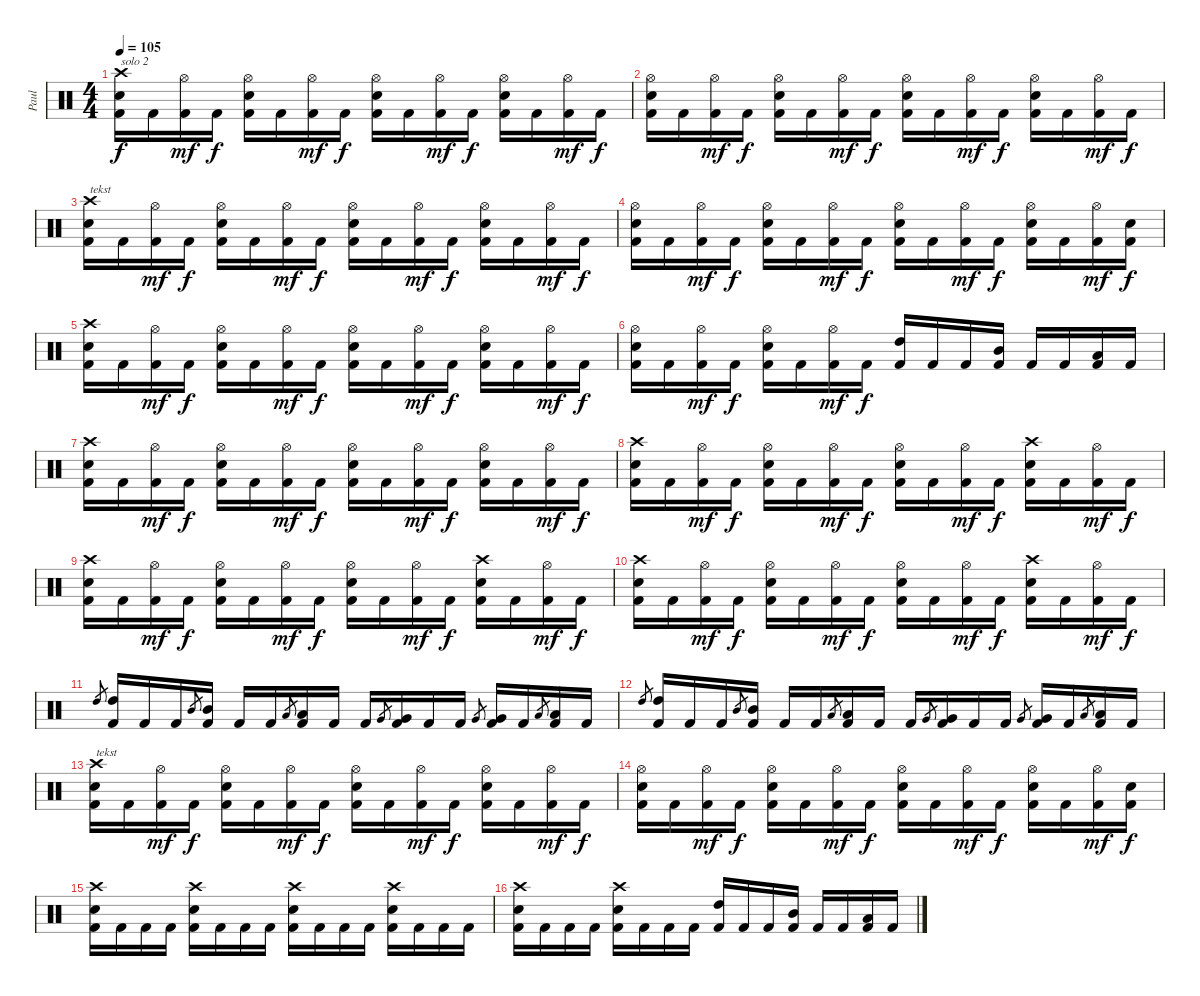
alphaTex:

\track ("Paul" "Paul") {instrument percussion}
\staff {score}
\articulation defaults
\ts (4 4)
\tempo 105
\clef neutral
\ks c
("Crash high (hit)" "Electric Snare (hit)" "Kick (hit) 2").16{txt "solo 2" dy f} "Kick (hit) 2".16 ("Hi-Hat (open)" "Kick (hit) 2").16{dy mf} "Kick (hit) 2".16{dy f} ("Hi-Hat (open)" "Electric Snare (hit)" "Kick (hit) 2").16 "Kick (hit) 2".16 ("Hi-Hat (open)" "Kick (hit) 2").16{dy mf} "Kick (hit) 2".16{dy f} ("Hi-Hat (open)" "Electric Snare (hit)" "Kick (hit) 2").16 "Kick (hit) 2".16 ("Hi-Hat (open)" "Kick (hit) 2").16{dy mf} "Kick (hit) 2".16{dy f} ("Hi-Hat (open)" "Electric Snare (hit)" "Kick (hit) 2").16 "Kick (hit) 2".16 ("Hi-Hat (open)" "Kick (hit) 2").16{dy mf} "Kick (hit) 2".16{dy f} |
("Hi-Hat (open)" "Electric Snare (hit)" "Kick (hit) 2").16 "Kick (hit) 2".16 ("Hi-Hat (open)" "Kick (hit) 2").16{dy mf} "Kick (hit) 2".16{dy f} ("Hi-Hat (open)" "Electric Snare (hit)" "Kick (hit) 2").16 "Kick (hit) 2".16 ("Hi-Hat (open)" "Kick (hit) 2").16{dy mf} "Kick (hit) 2".16{dy f} ("Hi-Hat (open)" "Electric Snare (hit)" "Kick (hit) 2").16 "Kick (hit) 2".16 ("Hi-Hat (open)" "Kick (hit) 2").16{dy mf} "Kick (hit) 2".16{dy f} ("Hi-Hat (open)" "Electric Snare (hit)" "Kick (hit) 2").16 "Kick (hit) 2".16 ("Hi-Hat (open)" "Kick (hit) 2").16{dy mf} "Kick (hit) 2".16{dy f} |
("Crash high (hit)" "Electric Snare (hit)" "Kick (hit) 2").16{txt "tekst"} "Kick (hit) 2".16 ("Hi-Hat (open)" "Kick (hit) 2").16{dy mf} "Kick (hit) 2".16{dy f} ("Hi-Hat (open)" "Electric Snare (hit)" "Kick (hit) 2").16 "Kick (hit) 2".16 ("Hi-Hat (open)" "Kick (hit) 2").16{dy mf} "Kick (hit) 2".16{dy f} ("Hi-Hat (open)" "Electric Snare (hit)" "Kick (hit) 2").16 "Kick (hit) 2".16 ("Hi-Hat (open)" "Kick (hit) 2").16{dy mf} "Kick (hit) 2".16{dy f} ("Hi-Hat (open)" "Electric Snare (hit)" "Kick (hit) 2").16 "Kick (hit) 2".16 ("Hi-Hat (open)" "Kick (hit) 2").16{dy mf} "Kick (hit) 2".16{dy f} |
("Hi-Hat (open)" "Electric Snare (hit)" "Kick (hit) 2").16 "Kick (hit) 2".16 ("Hi-Hat (open)" "Kick (hit) 2").16{dy mf} "Kick (hit) 2".16{dy f} ("Hi-Hat (open)" "Electric Snare (hit)" "Kick (hit) 2").16 "Kick (hit) 2".16 ("Hi-Hat (open)" "Kick (hit) 2").16{dy mf} "Kick (hit) 2".16{dy f} ("Hi-Hat (open)" "Electric Snare (hit)" "Kick (hit) 2").16 "Kick (hit) 2".16 ("Hi-Hat (open)" "Kick (hit) 2").16{dy mf} "Kick (hit) 2".16{dy f} ("Hi-Hat (open)" "Electric Snare (hit)" "Kick (hit) 2").16 "Kick (hit) 2".16 ("Hi-Hat (open)" "Kick (hit) 2").16{dy mf} ("Electric Snare (hit)" "Kick (hit) 2").16{dy f} |
("Crash high (hit)" "Electric Snare (hit)" "Kick (hit) 2").16 "Kick (hit) 2".16 ("Hi-Hat (open)" "Kick (hit) 2").16{dy mf} "Kick (hit) 2".16{dy f} ("Hi-Hat (open)" "Electric Snare (hit)" "Kick (hit) 2").16 "Kick (hit) 2".16 ("Hi-Hat (open)" "Kick (hit) 2").16{dy mf} "Kick (hit) 2".16{dy f} ("Hi-Hat (open)" "Electric Snare (hit)" "Kick (hit) 2").16 "Kick (hit) 2".16 ("Hi-Hat (open)" "Kick (hit) 2").16{dy mf} "Kick (hit) 2".16{dy f} ("Hi-Hat (open)" "Electric Snare (hit)" "Kick (hit) 2").16 "Kick (hit) 2".16 ("Hi-Hat (open)" "Kick (hit) 2").16{dy mf} "Kick (hit) 2".16{dy f} |
("Hi-Hat (open)" "Electric Snare (hit)" "Kick (hit) 2").16 "Kick (hit) 2".16 ("Hi-Hat (open)" "Kick (hit) 2").16{dy mf} "Kick (hit) 2".16{dy f} ("Hi-Hat (open)" "Electric Snare (hit)" "Kick (hit) 2").16 "Kick (hit) 2".16 ("Hi-Hat (open)" "Kick (hit) 2").16{dy mf} "Kick (hit) 2".16{dy f} ("High Tom (hit)" "Kick (hit) 2").16 "Kick (hit) 2".16 "Kick (hit) 2".16 ("Mid Tom (hit)" "Kick (hit) 2").16 "Kick (hit) 2".16 "Kick (hit) 2".16 ("Low Tom (hit)" "Kick (hit) 2").16 "Kick (hit) 2".16 |
("Crash high (hit)" "Electric Snare (hit)" "Kick (hit) 2").16 "Kick (hit) 2".16 ("Hi-Hat (open)" "Kick (hit) 2").16{dy mf} "Kick (hit) 2".16{dy f} ("Hi-Hat (open)" "Electric Snare (hit)" "Kick (hit) 2").16 "Kick (hit) 2".16 ("Hi-Hat (open)" "Kick (hit) 2").16{dy mf} "Kick (hit) 2".16{dy f} ("Hi-Hat (open)" "Electric Snare (hit)" "Kick (hit) 2").16 "Kick (hit) 2".16 ("Hi-Hat (open)" "Kick (hit) 2").16{dy mf} "Kick (hit) 2".16{dy f} ("Hi-Hat (open)" "Electric Snare (hit)" "Kick (hit) 2").16 "Kick (hit) 2".16 ("Hi-Hat (open)" "Kick (hit) 2").16{dy mf} "Kick (hit) 2".16{dy f} |
("Crash high (hit)" "Electric Snare (hit)" "Kick (hit) 2").16 "Kick (hit) 2".16 ("Hi-Hat (open)" "Kick (hit) 2").16{dy mf} "Kick (hit) 2".16{dy f} ("Hi-Hat (open)" "Electric Snare (hit)" "Kick (hit) 2").16 "Kick (hit) 2".16 ("Hi-Hat (open)" "Kick (hit) 2").16{dy mf} "Kick (hit) 2".16{dy f} ("Hi-Hat (open)" "Electric Snare (hit)" "Kick (hit) 2").16 "Kick (hit) 2".16 ("Hi-Hat (open)" "Kick (hit) 2").16{dy mf} "Kick (hit) 2".16{dy f} ("Crash high (hit)" "Electric Snare (hit)" "Kick (hit) 2").16 "Kick (hit) 2".16 ("Hi-Hat (open)" "Kick (hit) 2").16{dy mf} "Kick (hit) 2".16{dy f} |
("Crash high (hit)" "Electric Snare (hit)" "Kick (hit) 2").16 "Kick (hit) 2".16 ("Hi-Hat (open)" "Kick (hit) 2").16{dy mf} "Kick (hit) 2".16{dy f} ("Hi-Hat (open)" "Electric Snare (hit)" "Kick (hit) 2").16 "Kick (hit) 2".16 ("Hi-Hat (open)" "Kick (hit) 2").16{dy mf} "Kick (hit) 2".16{dy f} ("Hi-Hat (open)" "Electric Snare (hit)" "Kick (hit) 2").16 "Kick (hit) 2".16 ("Hi-Hat (open)" "Kick (hit) 2").16{dy mf} "Kick (hit) 2".16{dy f} ("Crash high (hit)" "Electric Snare (hit)" "Kick (hit) 2").16 "Kick (hit) 2".16 ("Hi-Hat (open)" "Kick (hit) 2").16{dy mf} "Kick (hit) 2".16{dy f} |
("Crash high (hit)" "Electric Snare (hit)" "Kick (hit) 2").16 "Kick (hit) 2".16 ("Hi-Hat (open)" "Kick (hit) 2").16{dy mf} "Kick (hit) 2".16{dy f} ("Hi-Hat (open)" "Electric Snare (hit)" "Kick (hit) 2").16 "Kick (hit) 2".16 ("Hi-Hat (open)" "Kick (hit) 2").16{dy mf} "Kick (hit) 2".16{dy f} ("Hi-Hat (open)" "Electric Snare (hit)" "Kick (hit) 2").16 "Kick (hit) 2".16 ("Hi-Hat (open)" "Kick (hit) 2").16{dy mf} "Kick (hit) 2".16{dy f} ("Crash high (hit)" "Electric Snare (hit)" "Kick (hit) 2").16 "Kick (hit) 2".16 ("Hi-Hat (open)" "Kick (hit) 2").16{dy mf} "Kick (hit) 2".16{dy f} |
"High Tom (hit)".8{gr} ("High Tom (hit)" "Kick (hit) 2").16 "Kick (hit) 2".16 "Kick (hit) 2".16 "Mid Tom (hit)".8{gr} ("Mid Tom (hit)" "Kick (hit) 2").16 "Kick (hit) 2".16 "Kick (hit) 2".16 "Low Tom (hit)".8{gr} ("Low Tom (hit)" "Kick (hit) 2").16 "Kick (hit) 2".16 "Kick (hit) 2".16 "Very Low Tom (hit)".8{gr} ("Very Low Tom (hit)" "Kick (hit) 2").16 "Kick (hit) 2".16 "Kick (hit) 2".16 "Very Low Tom (hit)".8{gr} ("Very Low Tom (hit)" "Kick (hit) 2").16 "Kick (hit) 2".16 "Low Floor Tom (hit)".8{gr} ("Low Floor Tom (hit)" "Kick (hit) 2").16 "Kick (hit) 2".16 |
"High Tom (hit)".8{gr} ("High Tom (hit)" "Kick (hit) 2").16 "Kick (hit) 2".16 "Kick (hit) 2".16 "Mid Tom (hit)".8{gr} ("Mid Tom (hit)" "Kick (hit) 2").16 "Kick (hit) 2".16 "Kick (hit) 2".16 "Low Tom (hit)".8{gr} ("Low Tom (hit)" "Kick (hit) 2").16 "Kick (hit) 2".16 "Kick (hit) 2".16 "Very Low Tom (hit)".8{gr} ("Very Low Tom (hit)" "Kick (hit) 2").16 "Kick (hit) 2".16 "Kick (hit) 2".16 "Very Low Tom (hit)".8{gr} ("Very Low Tom (hit)" "Kick (hit) 2").16 "Kick (hit) 2".16 "Low Floor Tom (hit)".8{gr} ("Low Floor Tom (hit)" "Kick (hit) 2").16 "Kick (hit) 2".16 |
("Crash high (hit)" "Electric Snare (hit)" "Kick (hit) 2").16{txt "tekst"} "Kick (hit) 2".16 ("Hi-Hat (open)" "Kick (hit) 2").16{dy mf} "Kick (hit) 2".16{dy f} ("Hi-Hat (open)" "Electric Snare (hit)" "Kick (hit) 2").16 "Kick (hit) 2".16 ("Hi-Hat (open)" "Kick (hit) 2").16{dy mf} "Kick (hit) 2".16{dy f} ("Hi-Hat (open)" "Electric Snare (hit)" "Kick (hit) 2").16 "Kick (hit) 2".16 ("Hi-Hat (open)" "Kick (hit) 2").16{dy mf} "Kick (hit) 2".16{dy f} ("Hi-Hat (open)" "Electric Snare (hit)" "Kick (hit) 2").16 "Kick (hit) 2".16 ("Hi-Hat (open)" "Kick (hit) 2").16{dy mf} "Kick (hit) 2".16{dy f} |
("Hi-Hat (open)" "Electric Snare (hit)" "Kick (hit) 2").16 "Kick (hit) 2".16 ("Hi-Hat (open)" "Kick (hit) 2").16{dy mf} "Kick (hit) 2".16{dy f} ("Hi-Hat (open)" "Electric Snare (hit)" "Kick (hit) 2").16 "Kick (hit) 2".16 ("Hi-Hat (open)" "Kick (hit) 2").16{dy mf} "Kick (hit) 2".16{dy f} ("Hi-Hat (open)" "Electric Snare (hit)" "Kick (hit) 2").16 "Kick (hit) 2".16 ("Hi-Hat (open)" "Kick (hit) 2").16{dy mf} "Kick (hit) 2".16{dy f} ("Hi-Hat (open)" "Electric Snare (hit)" "Kick (hit) 2").16 "Kick (hit) 2".16 ("Hi-Hat (open)" "Kick (hit) 2").16{dy mf} ("Electric Snare (hit)" "Kick (hit) 2").16{dy f} |
("Crash high (hit)" "Electric Snare (hit)" "Kick (hit) 2").16 "Kick (hit) 2".16 "Kick (hit) 2".16 "Kick (hit) 2".16 ("Crash high (hit)" "Electric Snare (hit)" "Kick (hit) 2").16 "Kick (hit) 2".16 "Kick (hit) 2".16 "Kick (hit) 2".16 ("Crash high (hit)" "Electric Snare (hit)" "Kick (hit) 2").16 "Kick (hit) 2".16 "Kick (hit) 2".16 "Kick (hit) 2".16 ("Crash high (hit)" "Electric Snare (hit)" "Kick (hit) 2").16 "Kick (hit) 2".16 "Kick (hit) 2".16 "Kick (hit) 2".16 |
("Crash high (hit)" "Electric Snare (hit)" "Kick (hit) 2").16 "Kick (hit) 2".16 "Kick (hit) 2".16 "Kick (hit) 2".16 ("Crash high (hit)" "Electric Snare (hit)" "Kick (hit) 2").16 "Kick (hit) 2".16 "Kick (hit) 2".16 "Kick (hit) 2".16 ("High Tom (hit)" "Kick (hit) 2").16 "Kick (hit) 2".16 "Kick (hit) 2".16 ("Mid Tom (hit)" "Kick (hit) 2").16 "Kick (hit) 2".16 "Kick (hit) 2".16 ("Low Tom (hit)" "Kick (hit) 2").16 "Kick (hit) 2".16
